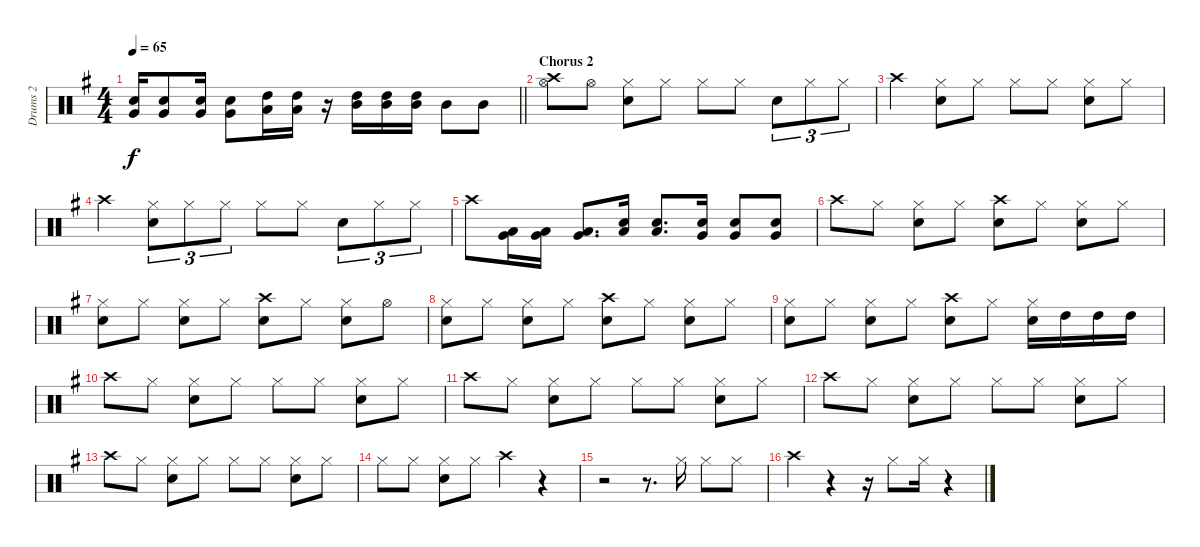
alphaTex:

\track ("Drums 2 " "Drums 2 ") {instrument percussion}
\staff {score}
\articulation defaults
\ts (4 4)
\tempo 65
\clef neutral
\barLineRight lightlight
\ks g
("Snare (hit) 2" "Very Low Tom (hit)").16{dy f} ("Snare (hit) 2" "Very Low Tom (hit)").8 ("Snare (hit) 2" "Very Low Tom (hit)").16 ("Snare (hit) 2" "Very Low Tom (hit)").8 ("High Tom (hit)" "Low Tom (hit)").16 ("High Tom (hit)" "Low Tom (hit)").16 r.16 ("Mid Tom (hit)" "High Tom (hit)").16 ("Mid Tom (hit)" "High Tom (hit)").16 ("Mid Tom (hit)" "High Tom (hit)").16 "Mid Tom (hit)".8 "Mid Tom (hit)".8 |
\section ("" "Chorus 2")
("Crash high (hit)" "Hi-Hat (open)").8 "Hi-Hat (open)".8 ("Hi-Hat (closed)" "Snare (hit) 2").8 "Hi-Hat (closed)".8 "Hi-Hat (closed)".8 "Hi-Hat (closed)".8 "Snare (hit) 2".8{tu (3 2)} "Hi-Hat (closed)".8{tu (3 2)} "Hi-Hat (closed)".8{tu (3 2)} |
"Crash high (hit)".4 ("Snare (hit) 2" "Hi-Hat (closed)").8 "Hi-Hat (closed)".8 "Hi-Hat (closed)".8 "Hi-Hat (closed)".8 ("Snare (hit) 2" "Hi-Hat (closed)").8 "Hi-Hat (closed)".8 |
"Crash high (hit)".4 ("Hi-Hat (closed)" "Snare (hit) 2").8{tu (3 2)} "Hi-Hat (closed)".8{tu (3 2)} "Hi-Hat (closed)".8{tu (3 2)} "Hi-Hat (closed)".8 "Hi-Hat (closed)".8 "Snare (hit) 2".8{tu (3 2)} "Hi-Hat (closed)".8{tu (3 2)} "Hi-Hat (closed)".8{tu (3 2)} |
"Crash high (hit)".8 ("Very Low Tom (hit)" "Low Tom (hit)").16 ("Low Tom (hit)" "Very Low Tom (hit)").16 ("Low Tom (hit)" "Very Low Tom (hit)").8{d} ("Snare (hit) 2" "Low Tom (hit)").16 ("Snare (hit) 2" "Low Tom (hit)").8{d} ("Snare (hit) 2" "Very Low Tom (hit)").16 ("Snare (hit) 2" "Very Low Tom (hit)").8 ("Snare (hit) 2" "Very Low Tom (hit)").8 |
"Crash high (hit)".8 "Hi-Hat (closed)".8 ("Hi-Hat (closed)" "Snare (hit) 2").8 "Hi-Hat (closed)".8 ("Crash high (hit)" "Snare (hit) 2").8 "Hi-Hat (closed)".8 ("Snare (hit) 2" "Hi-Hat (closed)").8 "Hi-Hat (closed)".8 |
("Hi-Hat (closed)" "Snare (hit) 2").8 "Hi-Hat (closed)".8 ("Hi-Hat (closed)" "Snare (hit) 2").8 "Hi-Hat (closed)".8 ("Crash high (hit)" "Snare (hit) 2").8 "Hi-Hat (closed)".8 ("Hi-Hat (closed)" "Snare (hit) 2").8 "Hi-Hat (open)".8 |
("Hi-Hat (closed)" "Snare (hit) 2").8 "Hi-Hat (closed)".8 ("Hi-Hat (closed)" "Snare (hit) 2").8 "Hi-Hat (closed)".8 ("Crash high (hit)" "Snare (hit) 2").8 "Hi-Hat (closed)".8 ("Hi-Hat (closed)" "Snare (hit) 2").8 "Hi-Hat (closed)".8 |
("Hi-Hat (closed)" "Snare (hit) 2").8 "Hi-Hat (closed)".8 ("Hi-Hat (closed)" "Snare (hit) 2").8 "Hi-Hat (closed)".8 ("Crash high (hit)" "Snare (hit) 2").8 "Hi-Hat (closed)".8 ("Hi-Hat (closed)" "Snare (hit) 2").16 "High Tom (hit)".16 "High Tom (hit)".16 "High Tom (hit)".16 |
"Crash high (hit)".8 "Hi-Hat (closed)".8 ("Hi-Hat (closed)" "Snare (hit) 2").8 "Hi-Hat (closed)".8 "Hi-Hat (closed)".8 "Hi-Hat (closed)".8 ("Hi-Hat (closed)" "Snare (hit) 2").8 "Hi-Hat (closed)".8 |
"Crash high (hit)".8 "Hi-Hat (closed)".8 ("Hi-Hat (closed)" "Snare (hit) 2").8 "Hi-Hat (closed)".8 "Hi-Hat (closed)".8 "Hi-Hat (closed)".8 ("Hi-Hat (closed)" "Snare (hit) 2").8 "Hi-Hat (closed)".8 |
"Crash high (hit)".8 "Hi-Hat (closed)".8 ("Hi-Hat (closed)" "Snare (hit) 2").8 "Hi-Hat (closed)".8 "Hi-Hat (closed)".8 "Hi-Hat (closed)".8 ("Hi-Hat (closed)" "Snare (hit) 2").8 "Hi-Hat (closed)".8 |
"Crash high (hit)".8 "Hi-Hat (closed)".8 ("Hi-Hat (closed)" "Snare (hit) 2").8 "Hi-Hat (closed)".8 "Hi-Hat (closed)".8 "Hi-Hat (closed)".8 ("Hi-Hat (closed)" "Snare (hit) 2").8 "Hi-Hat (closed)".8 |
"Hi-Hat (closed)".8 "Hi-Hat (closed)".8 ("Hi-Hat (closed)" "Snare (hit) 2").8 "Hi-Hat (closed)".8 "Crash high (hit)".4 r.4 |
r.2 r.8{d} "Hi-Hat (closed)".16 "Hi-Hat (closed)".8 "Hi-Hat (closed)".8 |
"Crash high (hit)".4 r.4 r.16 "Hi-Hat (closed)".8 "Hi-Hat (closed)".16 r.4
